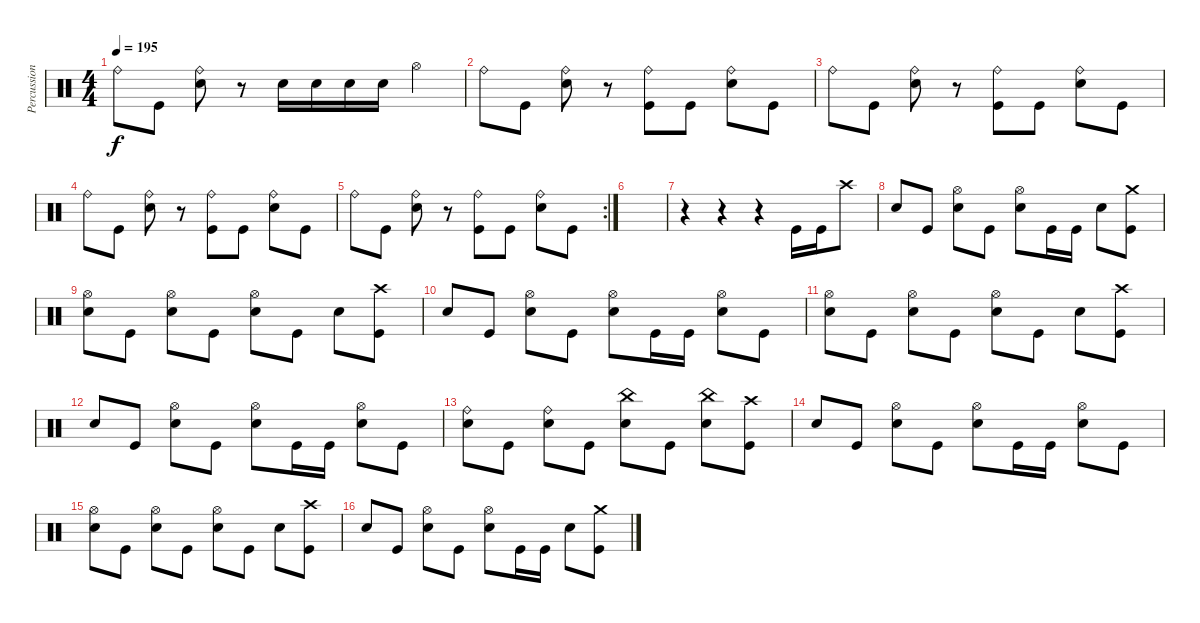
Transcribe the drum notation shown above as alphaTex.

\track ("Percussion" "Percussion") {instrument percussion}
\staff {score}
\articulation defaults
\ts (4 4)
\tempo 195
\clef neutral
\ks c "Ride (bell)".8{dy f} "Kick (hit)".8
("Ride (bell)" "Electric Snare (hit)").8 r.8 "Electric Snare (hit)".16 "Electric Snare (hit)".16 "Electric Snare (hit)".16 "Electric Snare (hit)".16 "Hi-Hat (open)".4 |
"Ride (bell)".8 "Kick (hit)".8 ("Ride (bell)" "Electric Snare (hit)").8 r.8 ("Ride (bell)" "Kick (hit)").8 "Kick (hit)".8 ("Ride (bell)" "Electric Snare (hit)").8 "Kick (hit)".8 |
"Ride (bell)".8 "Kick (hit)".8 ("Ride (bell)" "Electric Snare (hit)").8 r.8 ("Ride (bell)" "Kick (hit)").8 "Kick (hit)".8 ("Ride (bell)" "Electric Snare (hit)").8 "Kick (hit)".8 |
"Ride (bell)".8 "Kick (hit)".8 ("Ride (bell)" "Electric Snare (hit)").8 r.8 ("Ride (bell)" "Kick (hit)").8 "Kick (hit)".8 ("Ride (bell)" "Electric Snare (hit)").8 "Kick (hit)".8 |
\rc 2 "Ride (bell)".8 "Kick (hit)".8
("Ride (bell)" "Electric Snare (hit)").8 r.8 ("Ride (bell)" "Kick (hit)").8 "Kick (hit)".8 ("Ride (bell)" "Electric Snare (hit)").8 "Kick (hit)".8 |
|
r.4 r.4 r.4 "Kick (hit)".16 "Kick (hit)".16 "Crash high (hit)".8 |
"Electric Snare (hit)".8 "Kick (hit)".8 ("Hi-Hat (open)" "Electric Snare (hit)").8 "Kick (hit)".8 ("Hi-Hat (open)" "Electric Snare (hit)").8 "Kick (hit)".16 "Kick (hit)".16 "Electric Snare (hit)".8 ("Crash medium (hit)" "Kick (hit)").8 |
("Hi-Hat (open)" "Electric Snare (hit)").8 "Kick (hit)".8 ("Hi-Hat (open)" "Electric Snare (hit)").8 "Kick (hit)".8 ("Hi-Hat (open)" "Electric Snare (hit)").8 "Kick (hit)".8 "Electric Snare (hit)".8 ("Crash high (hit)" "Kick (hit)").8 |
"Electric Snare (hit)".8 "Kick (hit)".8 ("Hi-Hat (open)" "Electric Snare (hit)").8 "Kick (hit)".8 ("Hi-Hat (open)" "Electric Snare (hit)").8 "Kick (hit)".16 "Kick (hit)".16 ("Hi-Hat (open)" "Electric Snare (hit)").8 "Kick (hit)".8 |
("Hi-Hat (open)" "Electric Snare (hit)").8 "Kick (hit)".8 ("Hi-Hat (open)" "Electric Snare (hit)").8 "Kick (hit)".8 ("Hi-Hat (open)" "Electric Snare (hit)").8 "Kick (hit)".8 "Electric Snare (hit)".8 ("Crash high (hit)" "Kick (hit)").8 |
"Electric Snare (hit)".8 "Kick (hit)".8 ("Hi-Hat (open)" "Electric Snare (hit)").8 "Kick (hit)".8 ("Hi-Hat (open)" "Electric Snare (hit)").8 "Kick (hit)".16 "Kick (hit)".16 ("Hi-Hat (open)" "Electric Snare (hit)").8 "Kick (hit)".8 |
("Ride (bell)" "Electric Snare (hit)").8 "Kick (hit)".8 ("Ride (bell)" "Electric Snare (hit)").8 "Kick (hit)".8 ("China (hit)" "Electric Snare (hit)").8 "Kick (hit)".8 ("China (hit)" "Electric Snare (hit)").8 ("Crash high (hit)" "Kick (hit)").8 |
"Electric Snare (hit)".8 "Kick (hit)".8 ("Hi-Hat (open)" "Electric Snare (hit)").8 "Kick (hit)".8 ("Hi-Hat (open)" "Electric Snare (hit)").8 "Kick (hit)".16 "Kick (hit)".16 ("Hi-Hat (open)" "Electric Snare (hit)").8 "Kick (hit)".8 |
("Hi-Hat (open)" "Electric Snare (hit)").8 "Kick (hit)".8 ("Hi-Hat (open)" "Electric Snare (hit)").8 "Kick (hit)".8 ("Hi-Hat (open)" "Electric Snare (hit)").8 "Kick (hit)".8 "Electric Snare (hit)".8 ("Crash high (hit)" "Kick (hit)").8 |
"Electric Snare (hit)".8 "Kick (hit)".8 ("Hi-Hat (open)" "Electric Snare (hit)").8 "Kick (hit)".8 ("Hi-Hat (open)" "Electric Snare (hit)").8 "Kick (hit)".16 "Kick (hit)".16 "Electric Snare (hit)".8 ("Crash medium (hit)" "Kick (hit)").8
